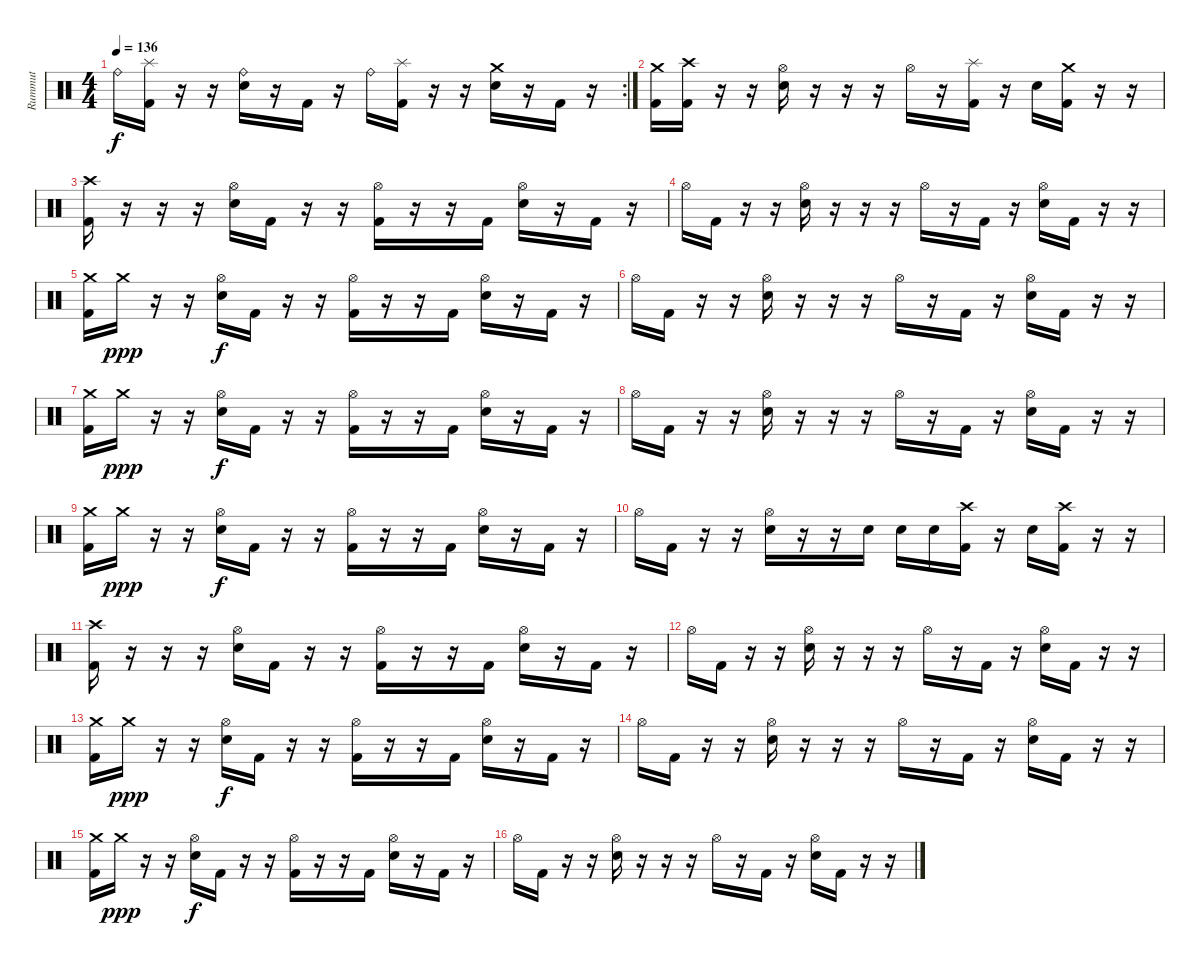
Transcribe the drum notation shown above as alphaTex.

\track ("Rummut" "Rummut") {instrument percussion}
\staff {score}
\articulation defaults
\rc 2
\ts (4 4)
\tempo 136
\clef neutral
\ks c "Ride (bell)".16{dy f}
("Splash (hit)" "Kick (hit) 2").16 r.16 r.16 ("Ride (bell)" "Electric Snare (hit)").16 r.16 "Kick (hit) 2".16 r.16 "Ride (bell)".16 ("Splash (hit)" "Kick (hit) 2").16 r.16 r.16 ("Crash medium (hit)" "Electric Snare (hit)").16 r.16 "Kick (hit) 2".16 r.16 |
("Crash medium (hit)" "Kick (hit) 2").16 ("Crash high (hit)" "Kick (hit) 2").16 r.16 r.16 ("Hi-Hat (open)" "Electric Snare (hit)").16 r.16 r.16 r.16 "Hi-Hat (open)".16 r.16 ("Splash (hit)" "Kick (hit) 2").16 r.16 "Electric Snare (hit)".16 ("Crash medium (hit)" "Kick (hit) 2").16 r.16 r.16 |
("Crash high (hit)" "Kick (hit) 2").16 r.16 r.16 r.16 ("Hi-Hat (open)" "Electric Snare (hit)").16 "Kick (hit) 2".16 r.16 r.16 ("Hi-Hat (open)" "Kick (hit) 2").16 r.16 r.16 "Kick (hit) 2".16 ("Hi-Hat (open)" "Electric Snare (hit)").16 r.16 "Kick (hit) 2".16 r.16 |
"Hi-Hat (open)".16 "Kick (hit) 2".16 r.16 r.16 ("Hi-Hat (open)" "Electric Snare (hit)").16 r.16 r.16 r.16 "Hi-Hat (open)".16 r.16 "Kick (hit) 2".16 r.16 ("Hi-Hat (open)" "Electric Snare (hit)").16 "Kick (hit) 2".16 r.16 r.16 |
("Crash medium (hit)" "Kick (hit) 2").16 "Crash medium (hit)".16{dy ppp} r.16 r.16 ("Hi-Hat (open)" "Electric Snare (hit)").16{dy f} "Kick (hit) 2".16 r.16 r.16 ("Hi-Hat (open)" "Kick (hit) 2").16 r.16 r.16 "Kick (hit) 2".16 ("Hi-Hat (open)" "Electric Snare (hit)").16 r.16 "Kick (hit) 2".16 r.16 |
"Hi-Hat (open)".16 "Kick (hit) 2".16 r.16 r.16 ("Hi-Hat (open)" "Electric Snare (hit)").16 r.16 r.16 r.16 "Hi-Hat (open)".16 r.16 "Kick (hit) 2".16 r.16 ("Hi-Hat (open)" "Electric Snare (hit)").16 "Kick (hit) 2".16 r.16 r.16 |
("Crash medium (hit)" "Kick (hit) 2").16 "Crash medium (hit)".16{dy ppp} r.16 r.16 ("Hi-Hat (open)" "Electric Snare (hit)").16{dy f} "Kick (hit) 2".16 r.16 r.16 ("Hi-Hat (open)" "Kick (hit) 2").16 r.16 r.16 "Kick (hit) 2".16 ("Hi-Hat (open)" "Electric Snare (hit)").16 r.16 "Kick (hit) 2".16 r.16 |
"Hi-Hat (open)".16 "Kick (hit) 2".16 r.16 r.16 ("Hi-Hat (open)" "Electric Snare (hit)").16 r.16 r.16 r.16 "Hi-Hat (open)".16 r.16 "Kick (hit) 2".16 r.16 ("Hi-Hat (open)" "Electric Snare (hit)").16 "Kick (hit) 2".16 r.16 r.16 |
("Crash medium (hit)" "Kick (hit) 2").16 "Crash medium (hit)".16{dy ppp} r.16 r.16 ("Hi-Hat (open)" "Electric Snare (hit)").16{dy f} "Kick (hit) 2".16 r.16 r.16 ("Hi-Hat (open)" "Kick (hit) 2").16 r.16 r.16 "Kick (hit) 2".16 ("Hi-Hat (open)" "Electric Snare (hit)").16 r.16 "Kick (hit) 2".16 r.16 |
"Hi-Hat (open)".16 "Kick (hit) 2".16 r.16 r.16 ("Hi-Hat (open)" "Electric Snare (hit)").16 r.16 r.16 "Electric Snare (hit)".16 "Electric Snare (hit)".16 "Electric Snare (hit)".16 ("Crash high (hit)" "Kick (hit) 2").16 r.16 "Electric Snare (hit)".16 ("Crash high (hit)" "Kick (hit) 2").16 r.16 r.16 |
("Crash high (hit)" "Kick (hit) 2").16 r.16 r.16 r.16 ("Hi-Hat (open)" "Electric Snare (hit)").16 "Kick (hit) 2".16 r.16 r.16 ("Hi-Hat (open)" "Kick (hit) 2").16 r.16 r.16 "Kick (hit) 2".16 ("Hi-Hat (open)" "Electric Snare (hit)").16 r.16 "Kick (hit) 2".16 r.16 |
"Hi-Hat (open)".16 "Kick (hit) 2".16 r.16 r.16 ("Hi-Hat (open)" "Electric Snare (hit)").16 r.16 r.16 r.16 "Hi-Hat (open)".16 r.16 "Kick (hit) 2".16 r.16 ("Hi-Hat (open)" "Electric Snare (hit)").16 "Kick (hit) 2".16 r.16 r.16 |
("Crash medium (hit)" "Kick (hit) 2").16 "Crash medium (hit)".16{dy ppp} r.16 r.16 ("Hi-Hat (open)" "Electric Snare (hit)").16{dy f} "Kick (hit) 2".16 r.16 r.16 ("Hi-Hat (open)" "Kick (hit) 2").16 r.16 r.16 "Kick (hit) 2".16 ("Hi-Hat (open)" "Electric Snare (hit)").16 r.16 "Kick (hit) 2".16 r.16 |
"Hi-Hat (open)".16 "Kick (hit) 2".16 r.16 r.16 ("Hi-Hat (open)" "Electric Snare (hit)").16 r.16 r.16 r.16 "Hi-Hat (open)".16 r.16 "Kick (hit) 2".16 r.16 ("Hi-Hat (open)" "Electric Snare (hit)").16 "Kick (hit) 2".16 r.16 r.16 |
("Crash medium (hit)" "Kick (hit) 2").16 "Crash medium (hit)".16{dy ppp} r.16 r.16 ("Hi-Hat (open)" "Electric Snare (hit)").16{dy f} "Kick (hit) 2".16 r.16 r.16 ("Hi-Hat (open)" "Kick (hit) 2").16 r.16 r.16 "Kick (hit) 2".16 ("Hi-Hat (open)" "Electric Snare (hit)").16 r.16 "Kick (hit) 2".16 r.16 |
"Hi-Hat (open)".16 "Kick (hit) 2".16 r.16 r.16 ("Hi-Hat (open)" "Electric Snare (hit)").16 r.16 r.16 r.16 "Hi-Hat (open)".16 r.16 "Kick (hit) 2".16 r.16 ("Hi-Hat (open)" "Electric Snare (hit)").16 "Kick (hit) 2".16 r.16 r.16
